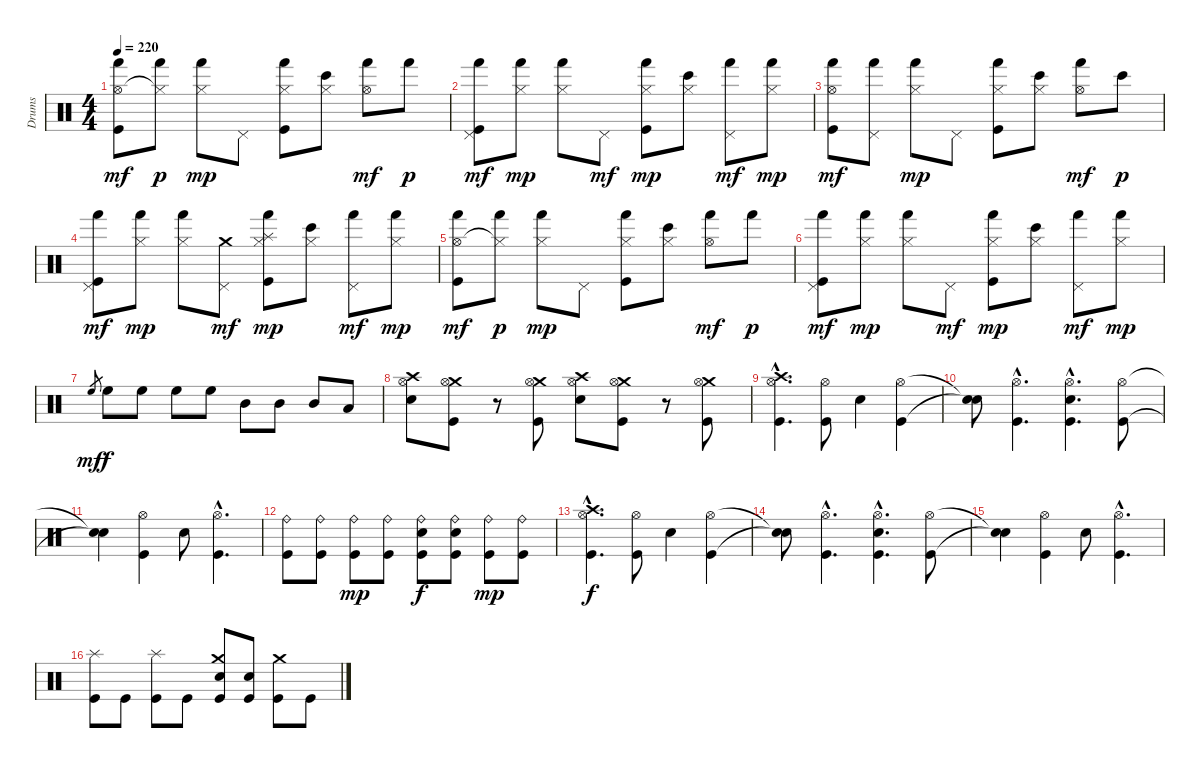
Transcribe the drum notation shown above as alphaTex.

\track ("Drums" "Drums") {instrument percussion}
\staff {score}
\articulation defaults
\ts (4 4)
\tempo 220
\clef neutral
\ks c
("Hand (hit)" "Hi-Hat (open)" "Kick (hit)").8{dy mf} ("Hand (hit)" "Hi-Hat (closed)"{t}).8{dy p} ("Hand (hit)" "Hi-Hat (closed)").8{dy mp} "Pedal Hi-Hat (hit)".8 ("Hand (hit)" "Hi-Hat (closed)" "Kick (hit)").8 ("Bongo High (hit)" "Hi-Hat (closed)").8 ("Hand (hit)" "Hi-Hat (open)").8{dy mf} "Hand (hit)".8{dy p} |
("Hand (hit)" "Pedal Hi-Hat (hit)" "Kick (hit)").8{dy mf} ("Hand (hit)" "Hi-Hat (closed)").8{dy mp} ("Hand (hit)" "Hi-Hat (closed)").8 "Pedal Hi-Hat (hit)".8{dy mf} ("Hand (hit)" "Hi-Hat (closed)" "Kick (hit)").8{dy mp} ("Bongo High (hit)" "Hi-Hat (closed)").8 ("Hand (hit)" "Pedal Hi-Hat (hit)").8{dy mf} ("Hand (hit)" "Hi-Hat (closed)").8{dy mp} |
("Hand (hit)" "Hi-Hat (open)" "Kick (hit)").8{dy mf} ("Hand (hit)" "Pedal Hi-Hat (hit)").8 ("Hand (hit)" "Hi-Hat (closed)").8{dy mp} "Pedal Hi-Hat (hit)".8 ("Hand (hit)" "Hi-Hat (closed)" "Kick (hit)").8 ("Bongo High (hit)" "Hi-Hat (closed)").8 ("Hand (hit)" "Hi-Hat (open)").8{dy mf} "Bongo High (hit)".8{dy p} |
("Hand (hit)" "Pedal Hi-Hat (hit)" "Kick (hit)").8{dy mf} ("Hand (hit)" "Hi-Hat (closed)").8{dy mp} ("Hand (hit)" "Hi-Hat (closed)").8 ("Crash medium (hit)" "Pedal Hi-Hat (hit)").8{dy mf} ("Hand (hit)" "Splash (hit)" "Hi-Hat (closed)" "Kick (hit)").8{dy mp} ("Bongo High (hit)" "Hi-Hat (closed)").8 ("Hand (hit)" "Pedal Hi-Hat (hit)").8{dy mf} ("Hand (hit)" "Hi-Hat (closed)").8{dy mp} |
("Hand (hit)" "Hi-Hat (open)" "Kick (hit)").8{dy mf} ("Hand (hit)" "Hi-Hat (closed)"{t}).8{dy p} ("Hand (hit)" "Hi-Hat (closed)").8{dy mp} "Pedal Hi-Hat (hit)".8 ("Hand (hit)" "Hi-Hat (closed)" "Kick (hit)").8 ("Bongo High (hit)" "Hi-Hat (closed)").8 ("Hand (hit)" "Hi-Hat (open)").8{dy mf} "Hand (hit)".8{dy p} |
("Hand (hit)" "Pedal Hi-Hat (hit)" "Kick (hit)").8{dy mf} ("Hand (hit)" "Hi-Hat (closed)").8{dy mp} ("Hand (hit)" "Hi-Hat (closed)").8 "Pedal Hi-Hat (hit)".8{dy mf} ("Hand (hit)" "Hi-Hat (closed)" "Kick (hit)").8{dy mp} ("Bongo High (hit)" "Hi-Hat (closed)").8 ("Hand (hit)" "Pedal Hi-Hat (hit)").8{dy mf} ("Hand (hit)" "Hi-Hat (closed)").8{dy mp} |
"High Floor Tom (hit)".8{gr dy mf} "High Floor Tom (hit)".8{dy f} "High Floor Tom (hit)".8 "High Floor Tom (hit)".8 "High Floor Tom (hit)".8 "Mid Tom (hit)".8 "Mid Tom (hit)".8 "Mid Tom (hit)".8 "Low Tom (hit)".8 |
("Crash high (hit)" "Hi-Hat (open)" "Electric Snare (hit)").8 ("Crash medium (hit)" "Hi-Hat (open)" "Kick (hit)").8 r.8 ("Crash medium (hit)" "Hi-Hat (open)" "Kick (hit)").8 ("Crash high (hit)" "Hi-Hat (open)" "Electric Snare (hit)").8 ("Crash medium (hit)" "Hi-Hat (open)" "Kick (hit)").8 r.8 ("Crash medium (hit)" "Hi-Hat (open)" "Kick (hit)").8 |
("Crash high (hit)"{hac} "Hi-Hat (open)"{hac} "Kick (hit)"{hac}).4{d} ("Hi-Hat (open)" "Kick (hit)").8 "Electric Snare (hit)".4 ("Hi-Hat (open)" "Kick (hit)").4 |
("Snare (hit)"{t} "Snare (hit)"{t}).8 ("Hi-Hat (open)"{hac} "Kick (hit)"{hac}).4{d} ("Hi-Hat (open)"{hac} "Electric Snare (hit)"{hac} "Kick (hit)"{hac}).4{d} ("Hi-Hat (open)" "Kick (hit)").8 |
("Snare (hit)"{t} "Snare (hit)"{t}).4 ("Hi-Hat (open)" "Kick (hit)").4 "Electric Snare (hit)".8 ("Hi-Hat (open)"{hac} "Kick (hit)"{hac}).4{d} |
("Ride (bell)" "Kick (hit)").8 ("Ride (bell)" "Kick (hit)").8 ("Ride (bell)" "Kick (hit)").8{dy mp} ("Ride (bell)" "Kick (hit)").8 ("Ride (bell)" "Electric Snare (hit)" "Kick (hit)").8{dy f} ("Ride (bell)" "Electric Snare (hit)" "Kick (hit)").8 ("Ride (bell)" "Kick (hit)").8{dy mp} ("Ride (bell)" "Kick (hit)").8 |
("Crash high (hit)"{hac} "Hi-Hat (open)"{hac} "Kick (hit)"{hac}).4{d dy f} ("Hi-Hat (open)" "Kick (hit)").8 "Electric Snare (hit)".4 ("Hi-Hat (open)" "Kick (hit)").4 |
("Snare (hit)"{t} "Snare (hit)"{t}).8 ("Hi-Hat (open)"{hac} "Kick (hit)"{hac}).4{d} ("Hi-Hat (open)"{hac} "Electric Snare (hit)"{hac} "Kick (hit)"{hac}).4{d} ("Hi-Hat (open)" "Kick (hit)").8 |
("Snare (hit)"{t} "Snare (hit)"{t}).4 ("Hi-Hat (open)" "Kick (hit)").4 "Electric Snare (hit)".8 ("Hi-Hat (open)"{hac} "Kick (hit)"{hac}).4{d} |
("Splash (hit)" "Kick (hit)").8 "Kick (hit)".8 ("Splash (hit)" "Kick (hit)").8 "Kick (hit)".8 ("Crash medium (hit)" "Electric Snare (hit)" "Kick (hit)").8 ("Electric Snare (hit)" "Kick (hit)").8 ("Crash medium (hit)" "Kick (hit)").8 "Kick (hit)".8
